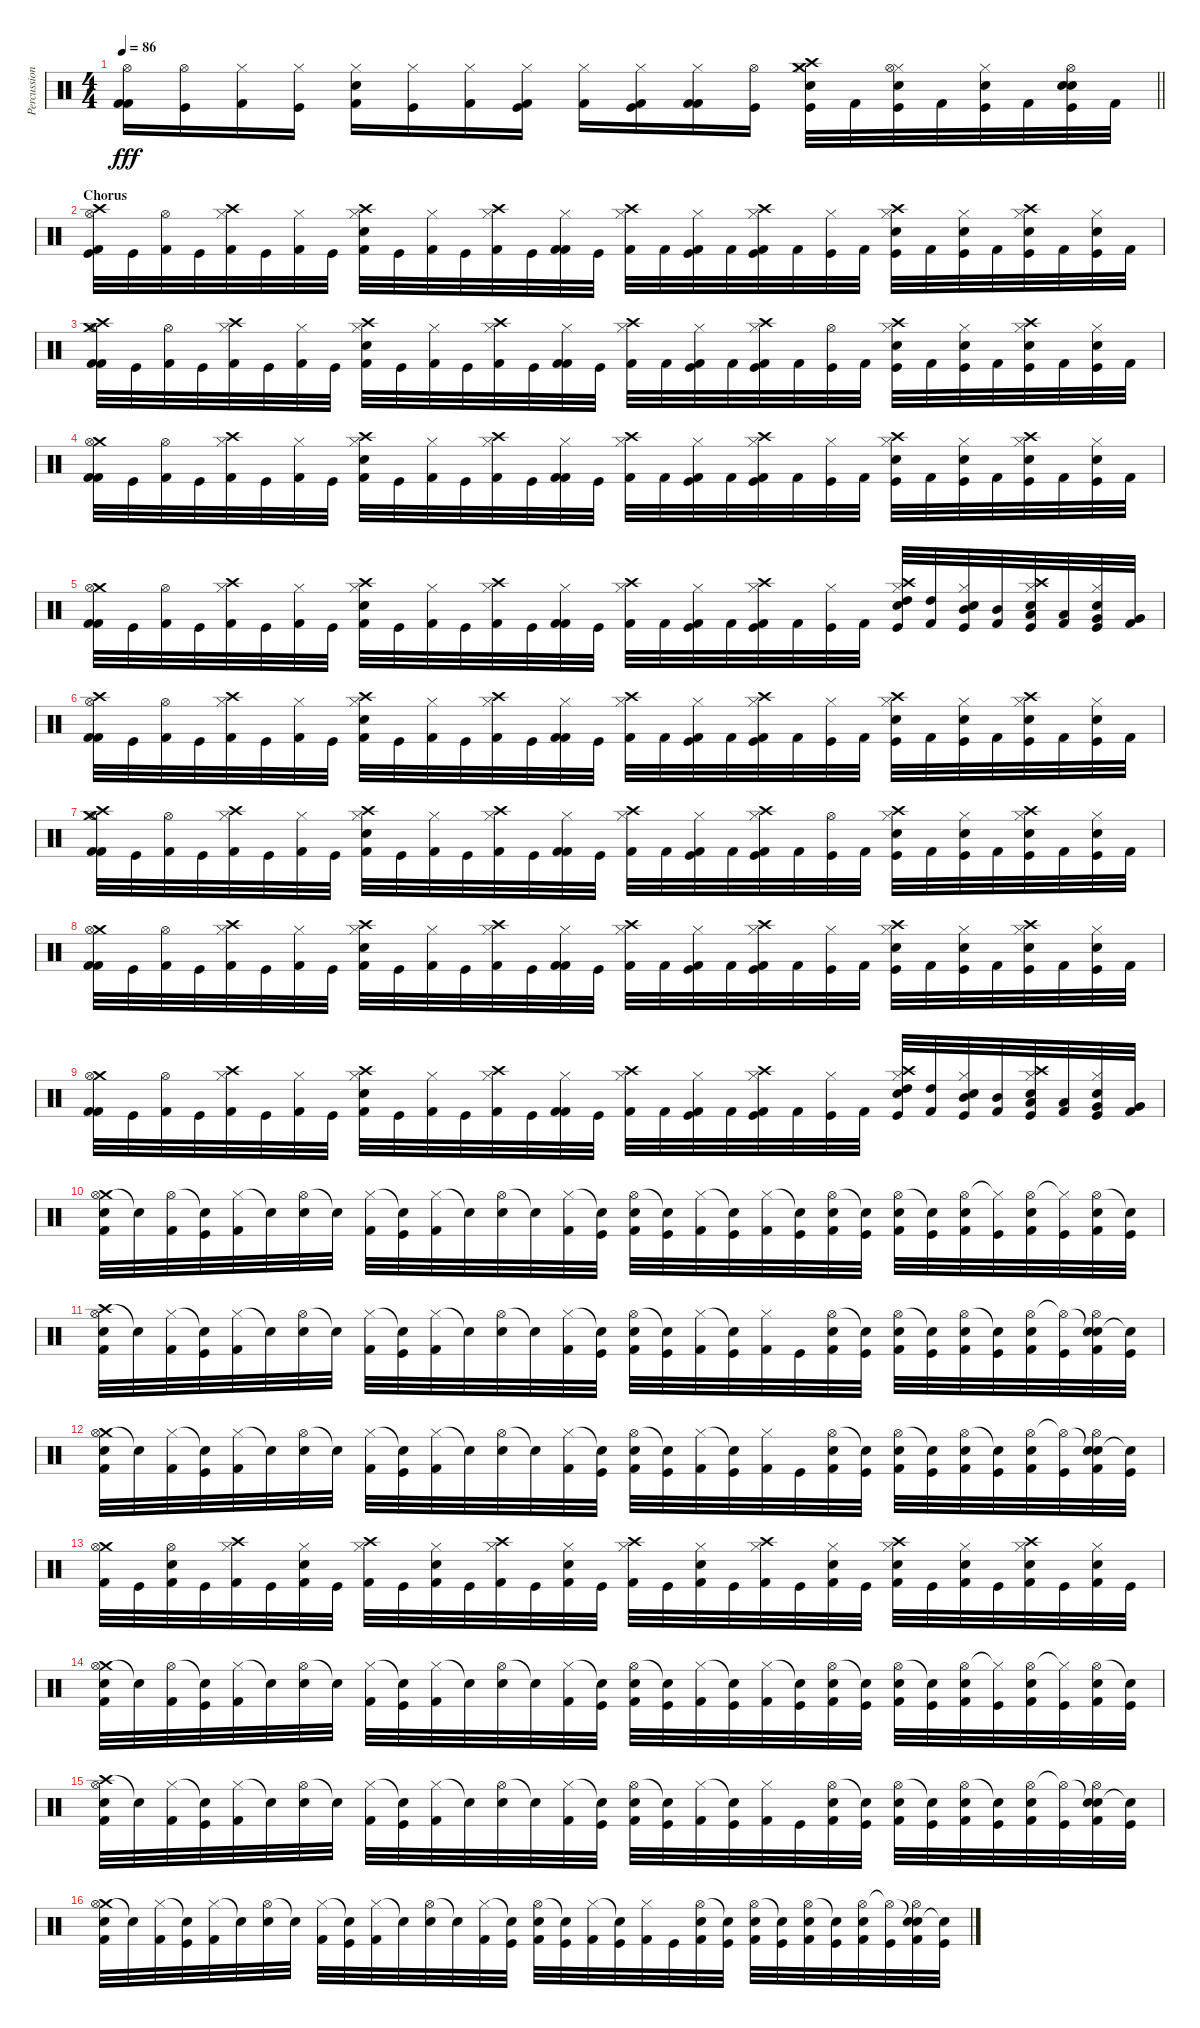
\track ("Percussion" "Percussion") {instrument percussion}
\staff {score}
\articulation defaults
\ts (4 4)
\tempo 86
\clef neutral
\barLineRight lightlight
\ks c
("Hi-Hat (open)" "Kick (hit) 2" "Kick (hit) 2").16{dy fff} ("Hi-Hat (open)" "Kick (hit)").16 ("Hi-Hat (closed)" "Kick (hit) 2").16 ("Hi-Hat (closed)" "Kick (hit)").16 ("Hi-Hat (closed)" "Electric Snare (hit)" "Kick (hit) 2").16 ("Hi-Hat (closed)" "Kick (hit)").16 ("Hi-Hat (closed)" "Kick (hit) 2").16 ("Hi-Hat (closed)" "Kick (hit) 2" "Kick (hit)").16 ("Hi-Hat (closed)" "Kick (hit) 2").16 ("Hi-Hat (closed)" "Kick (hit) 2" "Kick (hit)").16 ("Hi-Hat (closed)" "Kick (hit) 2" "Kick (hit) 2").16 ("Hi-Hat (open)" "Kick (hit)").16 ("Hi-Hat (closed)" "Crash high (hit)" "Crash medium (hit)" "Electric Snare (hit)" "Kick (hit)").32 "Kick (hit) 2".32 ("Hi-Hat (closed)" "Hi-Hat (open)" "Electric Snare (hit)" "Kick (hit)").32 "Kick (hit) 2".32 ("Hi-Hat (closed)" "Electric Snare (hit)" "Kick (hit)").32 "Kick (hit) 2".32 ("Snare (hit)" "Hi-Hat (open)" "Electric Snare (hit)" "Kick (hit)").32 "Kick (hit) 2".32 |
\section ("" "Chorus")
("Crash high (hit)" "Hi-Hat (open)" "Kick (hit) 2" "Kick (hit)").32 "Kick (hit)".32 ("Hi-Hat (open)" "Kick (hit) 2").32 "Kick (hit)".32 ("Crash high (hit)" "Hi-Hat (closed)" "Kick (hit) 2").32 "Kick (hit)".32 ("Hi-Hat (closed)" "Kick (hit) 2").32 "Kick (hit)".32 ("Crash high (hit)" "Hi-Hat (closed)" "Electric Snare (hit)" "Kick (hit) 2").32 "Kick (hit)".32 ("Hi-Hat (closed)" "Kick (hit) 2").32 "Kick (hit)".32 ("Crash high (hit)" "Hi-Hat (closed)" "Kick (hit) 2").32 "Kick (hit)".32 ("Hi-Hat (closed)" "Kick (hit) 2" "Kick (hit) 2").32 "Kick (hit)".32 ("Crash high (hit)" "Hi-Hat (closed)" "Kick (hit) 2").32 "Kick (hit) 2".32 ("Hi-Hat (closed)" "Kick (hit) 2" "Kick (hit)").32 "Kick (hit) 2".32 ("Crash high (hit)" "Hi-Hat (closed)" "Kick (hit) 2" "Kick (hit)").32 "Kick (hit) 2".32 ("Hi-Hat (closed)" "Kick (hit)").32 "Kick (hit) 2".32 ("Crash high (hit)" "Hi-Hat (closed)" "Electric Snare (hit)" "Kick (hit)").32 "Kick (hit) 2".32 ("Hi-Hat (closed)" "Electric Snare (hit)" "Kick (hit)").32 "Kick (hit) 2".32 ("Crash high (hit)" "Hi-Hat (closed)" "Electric Snare (hit)" "Kick (hit)").32 "Kick (hit) 2".32 ("Hi-Hat (closed)" "Electric Snare (hit)" "Kick (hit)").32 "Kick (hit) 2".32 |
("Crash medium (hit)" "Hi-Hat (open)" "Crash high (hit)" "Kick (hit) 2" "Kick (hit) 2").32 "Kick (hit)".32 ("Hi-Hat (open)" "Kick (hit) 2").32 "Kick (hit)".32 ("Crash high (hit)" "Hi-Hat (closed)" "Kick (hit) 2").32 "Kick (hit)".32 ("Hi-Hat (closed)" "Kick (hit) 2").32 "Kick (hit)".32 ("Crash high (hit)" "Hi-Hat (closed)" "Electric Snare (hit)" "Kick (hit) 2").32 "Kick (hit)".32 ("Hi-Hat (closed)" "Kick (hit) 2").32 "Kick (hit)".32 ("Crash high (hit)" "Hi-Hat (closed)" "Kick (hit) 2").32 "Kick (hit)".32 ("Hi-Hat (closed)" "Kick (hit) 2" "Kick (hit) 2").32 "Kick (hit)".32 ("Crash high (hit)" "Hi-Hat (closed)" "Kick (hit) 2").32 "Kick (hit) 2".32 ("Hi-Hat (closed)" "Kick (hit) 2" "Kick (hit)").32 "Kick (hit) 2".32 ("Crash high (hit)" "Hi-Hat (closed)" "Kick (hit) 2" "Kick (hit)").32 "Kick (hit) 2".32 ("Hi-Hat (open)" "Kick (hit)").32 "Kick (hit) 2".32 ("Crash high (hit)" "Hi-Hat (closed)" "Electric Snare (hit)" "Kick (hit)").32 "Kick (hit) 2".32 ("Hi-Hat (closed)" "Electric Snare (hit)" "Kick (hit)").32 "Kick (hit) 2".32 ("Crash high (hit)" "Hi-Hat (closed)" "Electric Snare (hit)" "Kick (hit)").32 "Kick (hit) 2".32 ("Hi-Hat (closed)" "Electric Snare (hit)" "Kick (hit)").32 "Kick (hit) 2".32 |
("Crash medium (hit)" "Hi-Hat (open)" "Kick (hit) 2" "Kick (hit) 2").32 "Kick (hit)".32 ("Hi-Hat (open)" "Kick (hit) 2").32 "Kick (hit)".32 ("Crash high (hit)" "Hi-Hat (closed)" "Kick (hit) 2").32 "Kick (hit)".32 ("Hi-Hat (closed)" "Kick (hit) 2").32 "Kick (hit)".32 ("Crash high (hit)" "Hi-Hat (closed)" "Electric Snare (hit)" "Kick (hit) 2").32 "Kick (hit)".32 ("Hi-Hat (closed)" "Kick (hit) 2").32 "Kick (hit)".32 ("Crash high (hit)" "Hi-Hat (closed)" "Kick (hit) 2").32 "Kick (hit)".32 ("Hi-Hat (closed)" "Kick (hit) 2" "Kick (hit) 2").32 "Kick (hit)".32 ("Crash high (hit)" "Hi-Hat (closed)" "Kick (hit) 2").32 "Kick (hit) 2".32 ("Hi-Hat (closed)" "Kick (hit) 2" "Kick (hit)").32 "Kick (hit) 2".32 ("Crash high (hit)" "Hi-Hat (closed)" "Kick (hit) 2" "Kick (hit)").32 "Kick (hit) 2".32 ("Hi-Hat (closed)" "Kick (hit)").32 "Kick (hit) 2".32 ("Crash high (hit)" "Hi-Hat (closed)" "Electric Snare (hit)" "Kick (hit)").32 "Kick (hit) 2".32 ("Hi-Hat (closed)" "Electric Snare (hit)" "Kick (hit)").32 "Kick (hit) 2".32 ("Crash high (hit)" "Hi-Hat (closed)" "Electric Snare (hit)" "Kick (hit)").32 "Kick (hit) 2".32 ("Hi-Hat (closed)" "Electric Snare (hit)" "Kick (hit)").32 "Kick (hit) 2".32 |
("Crash medium (hit)" "Hi-Hat (open)" "Kick (hit) 2" "Kick (hit) 2").32 "Kick (hit)".32 ("Hi-Hat (open)" "Kick (hit) 2").32 "Kick (hit)".32 ("Crash high (hit)" "Hi-Hat (closed)" "Kick (hit) 2").32 "Kick (hit)".32 ("Hi-Hat (closed)" "Kick (hit) 2").32 "Kick (hit)".32 ("Crash high (hit)" "Hi-Hat (closed)" "Electric Snare (hit)" "Kick (hit) 2").32 "Kick (hit)".32 ("Hi-Hat (closed)" "Kick (hit) 2").32 "Kick (hit)".32 ("Crash high (hit)" "Hi-Hat (closed)" "Kick (hit) 2").32 "Kick (hit)".32 ("Hi-Hat (closed)" "Kick (hit) 2" "Kick (hit) 2").32 "Kick (hit)".32 ("Crash high (hit)" "Hi-Hat (closed)" "Kick (hit) 2").32 "Kick (hit) 2".32 ("Hi-Hat (closed)" "Kick (hit) 2" "Kick (hit)").32 "Kick (hit) 2".32 ("Crash high (hit)" "Hi-Hat (closed)" "Kick (hit) 2" "Kick (hit)").32 "Kick (hit) 2".32 ("Hi-Hat (closed)" "Kick (hit)").32 "Kick (hit) 2".32 ("Crash high (hit)" "Hi-Hat (closed)" "High Tom (hit)" "Electric Snare (hit)" "Kick (hit)").32 ("High Tom (hit)" "Kick (hit) 2").32 ("Hi-Hat (closed)" "Mid Tom (hit)" "Electric Snare (hit)" "Kick (hit)").32 ("Mid Tom (hit)" "Kick (hit) 2").32 ("Crash high (hit)" "Hi-Hat (closed)" "Low Tom (hit)" "Electric Snare (hit)" "Kick (hit)").32 ("Low Tom (hit)" "Kick (hit) 2").32 ("Hi-Hat (closed)" "Very Low Tom (hit)" "Electric Snare (hit)" "Kick (hit)").32 ("Very Low Tom (hit)" "Kick (hit) 2").32 |
("Crash high (hit)" "Hi-Hat (open)" "Kick (hit) 2" "Kick (hit) 2").32 "Kick (hit)".32 ("Hi-Hat (open)" "Kick (hit) 2").32 "Kick (hit)".32 ("Crash high (hit)" "Hi-Hat (closed)" "Kick (hit) 2").32 "Kick (hit)".32 ("Hi-Hat (closed)" "Kick (hit) 2").32 "Kick (hit)".32 ("Crash high (hit)" "Hi-Hat (closed)" "Electric Snare (hit)" "Kick (hit) 2").32 "Kick (hit)".32 ("Hi-Hat (closed)" "Kick (hit) 2").32 "Kick (hit)".32 ("Crash high (hit)" "Hi-Hat (closed)" "Kick (hit) 2").32 "Kick (hit)".32 ("Hi-Hat (closed)" "Kick (hit) 2" "Kick (hit) 2").32 "Kick (hit)".32 ("Crash high (hit)" "Hi-Hat (closed)" "Kick (hit) 2").32 "Kick (hit) 2".32 ("Hi-Hat (closed)" "Kick (hit) 2" "Kick (hit)").32 "Kick (hit) 2".32 ("Crash high (hit)" "Hi-Hat (closed)" "Kick (hit) 2" "Kick (hit)").32 "Kick (hit) 2".32 ("Hi-Hat (closed)" "Kick (hit)").32 "Kick (hit) 2".32 ("Crash high (hit)" "Hi-Hat (closed)" "Electric Snare (hit)" "Kick (hit)").32 "Kick (hit) 2".32 ("Hi-Hat (closed)" "Electric Snare (hit)" "Kick (hit)").32 "Kick (hit) 2".32 ("Crash high (hit)" "Hi-Hat (closed)" "Electric Snare (hit)" "Kick (hit)").32 "Kick (hit) 2".32 ("Hi-Hat (closed)" "Electric Snare (hit)" "Kick (hit)").32 "Kick (hit) 2".32 |
("Crash medium (hit)" "Hi-Hat (open)" "Crash high (hit)" "Kick (hit) 2" "Kick (hit) 2").32 "Kick (hit)".32 ("Hi-Hat (open)" "Kick (hit) 2").32 "Kick (hit)".32 ("Crash high (hit)" "Hi-Hat (closed)" "Kick (hit) 2").32 "Kick (hit)".32 ("Hi-Hat (closed)" "Kick (hit) 2").32 "Kick (hit)".32 ("Crash high (hit)" "Hi-Hat (closed)" "Electric Snare (hit)" "Kick (hit) 2").32 "Kick (hit)".32 ("Hi-Hat (closed)" "Kick (hit) 2").32 "Kick (hit)".32 ("Crash high (hit)" "Hi-Hat (closed)" "Kick (hit) 2").32 "Kick (hit)".32 ("Hi-Hat (closed)" "Kick (hit) 2" "Kick (hit) 2").32 "Kick (hit)".32 ("Crash high (hit)" "Hi-Hat (closed)" "Kick (hit) 2").32 "Kick (hit) 2".32 ("Hi-Hat (closed)" "Kick (hit) 2" "Kick (hit)").32 "Kick (hit) 2".32 ("Crash high (hit)" "Hi-Hat (closed)" "Kick (hit) 2" "Kick (hit)").32 "Kick (hit) 2".32 ("Hi-Hat (open)" "Kick (hit)").32 "Kick (hit) 2".32 ("Crash high (hit)" "Hi-Hat (closed)" "Electric Snare (hit)" "Kick (hit)").32 "Kick (hit) 2".32 ("Hi-Hat (closed)" "Electric Snare (hit)" "Kick (hit)").32 "Kick (hit) 2".32 ("Crash high (hit)" "Hi-Hat (closed)" "Electric Snare (hit)" "Kick (hit)").32 "Kick (hit) 2".32 ("Hi-Hat (closed)" "Electric Snare (hit)" "Kick (hit)").32 "Kick (hit) 2".32 |
("Crash medium (hit)" "Hi-Hat (open)" "Kick (hit) 2" "Kick (hit) 2").32 "Kick (hit)".32 ("Hi-Hat (open)" "Kick (hit) 2").32 "Kick (hit)".32 ("Crash high (hit)" "Hi-Hat (closed)" "Kick (hit) 2").32 "Kick (hit)".32 ("Hi-Hat (closed)" "Kick (hit) 2").32 "Kick (hit)".32 ("Crash high (hit)" "Hi-Hat (closed)" "Electric Snare (hit)" "Kick (hit) 2").32 "Kick (hit)".32 ("Hi-Hat (closed)" "Kick (hit) 2").32 "Kick (hit)".32 ("Crash high (hit)" "Hi-Hat (closed)" "Kick (hit) 2").32 "Kick (hit)".32 ("Hi-Hat (closed)" "Kick (hit) 2" "Kick (hit) 2").32 "Kick (hit)".32 ("Crash high (hit)" "Hi-Hat (closed)" "Kick (hit) 2").32 "Kick (hit) 2".32 ("Hi-Hat (closed)" "Kick (hit) 2" "Kick (hit)").32 "Kick (hit) 2".32 ("Crash high (hit)" "Hi-Hat (closed)" "Kick (hit) 2" "Kick (hit)").32 "Kick (hit) 2".32 ("Hi-Hat (closed)" "Kick (hit)").32 "Kick (hit) 2".32 ("Crash high (hit)" "Hi-Hat (closed)" "Electric Snare (hit)" "Kick (hit)").32 "Kick (hit) 2".32 ("Hi-Hat (closed)" "Electric Snare (hit)" "Kick (hit)").32 "Kick (hit) 2".32 ("Crash high (hit)" "Hi-Hat (closed)" "Electric Snare (hit)" "Kick (hit)").32 "Kick (hit) 2".32 ("Hi-Hat (closed)" "Electric Snare (hit)" "Kick (hit)").32 "Kick (hit) 2".32 |
("Crash medium (hit)" "Hi-Hat (open)" "Kick (hit) 2" "Kick (hit) 2").32 "Kick (hit)".32 ("Hi-Hat (open)" "Kick (hit) 2").32 "Kick (hit)".32 ("Crash high (hit)" "Hi-Hat (closed)" "Kick (hit) 2").32 "Kick (hit)".32 ("Hi-Hat (closed)" "Kick (hit) 2").32 "Kick (hit)".32 ("Crash high (hit)" "Hi-Hat (closed)" "Electric Snare (hit)" "Kick (hit) 2").32 "Kick (hit)".32 ("Hi-Hat (closed)" "Kick (hit) 2").32 "Kick (hit)".32 ("Crash high (hit)" "Hi-Hat (closed)" "Kick (hit) 2").32 "Kick (hit)".32 ("Hi-Hat (closed)" "Kick (hit) 2" "Kick (hit) 2").32 "Kick (hit)".32 ("Crash high (hit)" "Hi-Hat (closed)" "Kick (hit) 2").32 "Kick (hit) 2".32 ("Hi-Hat (closed)" "Kick (hit) 2" "Kick (hit)").32 "Kick (hit) 2".32 ("Crash high (hit)" "Hi-Hat (closed)" "Kick (hit) 2" "Kick (hit)").32 "Kick (hit) 2".32 ("Hi-Hat (closed)" "Kick (hit)").32 "Kick (hit) 2".32 ("Crash high (hit)" "Hi-Hat (closed)" "High Tom (hit)" "Electric Snare (hit)" "Kick (hit)").32 ("High Tom (hit)" "Kick (hit) 2").32 ("Hi-Hat (closed)" "Mid Tom (hit)" "Electric Snare (hit)" "Kick (hit)").32 ("Mid Tom (hit)" "Kick (hit) 2").32 ("Crash high (hit)" "Hi-Hat (closed)" "Low Tom (hit)" "Electric Snare (hit)" "Kick (hit)").32 ("Low Tom (hit)" "Kick (hit) 2").32 ("Hi-Hat (closed)" "Very Low Tom (hit)" "Electric Snare (hit)" "Kick (hit)").32 ("Very Low Tom (hit)" "Kick (hit) 2").32 |
("Crash medium (hit)" "Hi-Hat (open)" "Electric Snare (hit)" "Kick (hit) 2").32 "Snare (hit)"{t}.32 ("Hi-Hat (open)" "Kick (hit) 2").32 ("Snare (hit)"{t} "Kick (hit)").32 ("Hi-Hat (closed)" "Kick (hit) 2").32 "Snare (hit)"{t}.32 ("Hi-Hat (open)" "Electric Snare (hit)").32 "Snare (hit)"{t}.32 ("Hi-Hat (closed)" "Kick (hit) 2").32 ("Snare (hit)"{t} "Kick (hit)").32 ("Hi-Hat (closed)" "Kick (hit) 2").32 "Snare (hit)"{t}.32 ("Hi-Hat (open)" "Electric Snare (hit)").32 "Snare (hit)"{t}.32 ("Hi-Hat (closed)" "Kick (hit) 2").32 ("Snare (hit)"{t} "Kick (hit)").32 ("Hi-Hat (open)" "Electric Snare (hit)" "Kick (hit) 2").32 ("Snare (hit)"{t} "Kick (hit)").32 ("Hi-Hat (closed)" "Kick (hit) 2").32 ("Snare (hit)"{t} "Kick (hit)").32 ("Hi-Hat (closed)" "Kick (hit) 2").32 ("Snare (hit)"{t} "Kick (hit)").32 ("Hi-Hat (open)" "Electric Snare (hit)" "Kick (hit) 2").32 ("Snare (hit)"{t} "Kick (hit)").32 ("Hi-Hat (open)" "Electric Snare (hit)" "Kick (hit) 2").32 ("Snare (hit)"{t} "Kick (hit)").32 ("Hi-Hat (open)" "Electric Snare (hit)" "Kick (hit) 2").32 ("Hi-Hat (closed)"{t} "Kick (hit)").32 ("Hi-Hat (open)" "Electric Snare (hit)" "Kick (hit) 2").32 ("Hi-Hat (closed)"{t} "Kick (hit)").32 ("Hi-Hat (open)" "Electric Snare (hit)" "Kick (hit) 2").32 ("Snare (hit)"{t} "Kick (hit)").32 |
("Crash high (hit)" "Hi-Hat (open)" "Electric Snare (hit)" "Kick (hit) 2").32 "Snare (hit)"{t}.32 ("Hi-Hat (closed)" "Kick (hit) 2").32 ("Snare (hit)"{t} "Kick (hit)").32 ("Hi-Hat (closed)" "Kick (hit) 2").32 "Snare (hit)"{t}.32 ("Hi-Hat (open)" "Electric Snare (hit)").32 "Snare (hit)"{t}.32 ("Hi-Hat (closed)" "Kick (hit) 2").32 ("Snare (hit)"{t} "Kick (hit)").32 ("Hi-Hat (closed)" "Kick (hit) 2").32 "Snare (hit)"{t}.32 ("Hi-Hat (open)" "Electric Snare (hit)").32 "Snare (hit)"{t}.32 ("Hi-Hat (closed)" "Kick (hit) 2").32 ("Snare (hit)"{t} "Kick (hit)").32 ("Hi-Hat (open)" "Electric Snare (hit)" "Kick (hit) 2").32 ("Snare (hit)"{t} "Kick (hit)").32 ("Hi-Hat (closed)" "Kick (hit) 2").32 ("Snare (hit)"{t} "Kick (hit)").32 ("Hi-Hat (closed)" "Kick (hit) 2").32 "Kick (hit)".32 ("Hi-Hat (open)" "Electric Snare (hit)" "Kick (hit) 2").32 ("Snare (hit)"{t} "Kick (hit)").32 ("Hi-Hat (open)" "Electric Snare (hit)" "Kick (hit) 2").32 ("Snare (hit)"{t} "Kick (hit)").32 ("Hi-Hat (open)" "Electric Snare (hit)" "Kick (hit) 2").32 ("Snare (hit)"{t} "Kick (hit)").32 ("Hi-Hat (open)" "Electric Snare (hit)" "Kick (hit) 2").32 ("Hi-Hat (open)"{t} "Kick (hit)").32 ("Snare (hit)"{t} "Hi-Hat (open)" "Electric Snare (hit)" "Kick (hit) 2").32 ("Snare (hit)"{t} "Kick (hit)").32 |
("Crash medium (hit)" "Hi-Hat (open)" "Electric Snare (hit)" "Kick (hit) 2").32 "Snare (hit)"{t}.32 ("Hi-Hat (closed)" "Kick (hit) 2").32 ("Snare (hit)"{t} "Kick (hit)").32 ("Hi-Hat (closed)" "Kick (hit) 2").32 "Snare (hit)"{t}.32 ("Hi-Hat (open)" "Electric Snare (hit)").32 "Snare (hit)"{t}.32 ("Hi-Hat (closed)" "Kick (hit) 2").32 ("Snare (hit)"{t} "Kick (hit)").32 ("Hi-Hat (closed)" "Kick (hit) 2").32 "Snare (hit)"{t}.32 ("Hi-Hat (open)" "Electric Snare (hit)").32 "Snare (hit)"{t}.32 ("Hi-Hat (closed)" "Kick (hit) 2").32 ("Snare (hit)"{t} "Kick (hit)").32 ("Hi-Hat (open)" "Electric Snare (hit)" "Kick (hit) 2").32 ("Snare (hit)"{t} "Kick (hit)").32 ("Hi-Hat (closed)" "Kick (hit) 2").32 ("Snare (hit)"{t} "Kick (hit)").32 ("Hi-Hat (closed)" "Kick (hit) 2").32 "Kick (hit)".32 ("Hi-Hat (open)" "Electric Snare (hit)" "Kick (hit) 2").32 ("Snare (hit)"{t} "Kick (hit)").32 ("Hi-Hat (open)" "Electric Snare (hit)" "Kick (hit) 2").32 ("Snare (hit)"{t} "Kick (hit)").32 ("Hi-Hat (open)" "Electric Snare (hit)" "Kick (hit) 2").32 ("Snare (hit)"{t} "Kick (hit)").32 ("Hi-Hat (open)" "Electric Snare (hit)" "Kick (hit) 2").32 ("Hi-Hat (open)"{t} "Kick (hit)").32 ("Snare (hit)"{t} "Hi-Hat (open)" "Electric Snare (hit)" "Kick (hit) 2").32 ("Snare (hit)"{t} "Kick (hit)").32 |
("Crash medium (hit)" "Hi-Hat (open)" "Kick (hit) 2").32 "Kick (hit)".32 ("Hi-Hat (open)" "Electric Snare (hit)" "Kick (hit) 2").32 "Kick (hit)".32 ("Crash high (hit)" "Hi-Hat (closed)" "Kick (hit) 2").32 "Kick (hit)".32 ("Hi-Hat (closed)" "Electric Snare (hit)" "Kick (hit) 2").32 "Kick (hit)".32 ("Crash high (hit)" "Hi-Hat (closed)" "Kick (hit) 2").32 "Kick (hit)".32 ("Hi-Hat (closed)" "Electric Snare (hit)" "Kick (hit) 2").32 "Kick (hit)".32 ("Crash high (hit)" "Hi-Hat (closed)" "Kick (hit) 2").32 "Kick (hit)".32 ("Hi-Hat (closed)" "Electric Snare (hit)" "Kick (hit) 2").32 "Kick (hit)".32 ("Crash high (hit)" "Hi-Hat (closed)" "Kick (hit) 2").32 "Kick (hit)".32 ("Hi-Hat (closed)" "Electric Snare (hit)" "Kick (hit) 2").32 "Kick (hit)".32 ("Crash high (hit)" "Hi-Hat (closed)" "Kick (hit) 2").32 "Kick (hit)".32 ("Hi-Hat (closed)" "Electric Snare (hit)" "Kick (hit) 2").32 "Kick (hit)".32 ("Crash high (hit)" "Hi-Hat (closed)" "Electric Snare (hit)" "Kick (hit) 2").32 "Kick (hit)".32 ("Hi-Hat (closed)" "Electric Snare (hit)" "Kick (hit) 2").32 "Kick (hit)".32 ("Crash high (hit)" "Hi-Hat (closed)" "Electric Snare (hit)" "Kick (hit) 2").32 "Kick (hit)".32 ("Hi-Hat (closed)" "Electric Snare (hit)" "Kick (hit) 2").32 "Kick (hit)".32 |
("Crash medium (hit)" "Hi-Hat (open)" "Electric Snare (hit)" "Kick (hit) 2").32 "Snare (hit)"{t}.32 ("Hi-Hat (open)" "Kick (hit) 2").32 ("Snare (hit)"{t} "Kick (hit)").32 ("Hi-Hat (closed)" "Kick (hit) 2").32 "Snare (hit)"{t}.32 ("Hi-Hat (open)" "Electric Snare (hit)").32 "Snare (hit)"{t}.32 ("Hi-Hat (closed)" "Kick (hit) 2").32 ("Snare (hit)"{t} "Kick (hit)").32 ("Hi-Hat (closed)" "Kick (hit) 2").32 "Snare (hit)"{t}.32 ("Hi-Hat (open)" "Electric Snare (hit)").32 "Snare (hit)"{t}.32 ("Hi-Hat (closed)" "Kick (hit) 2").32 ("Snare (hit)"{t} "Kick (hit)").32 ("Hi-Hat (open)" "Electric Snare (hit)" "Kick (hit) 2").32 ("Snare (hit)"{t} "Kick (hit)").32 ("Hi-Hat (closed)" "Kick (hit) 2").32 ("Snare (hit)"{t} "Kick (hit)").32 ("Hi-Hat (closed)" "Kick (hit) 2").32 ("Snare (hit)"{t} "Kick (hit)").32 ("Hi-Hat (open)" "Electric Snare (hit)" "Kick (hit) 2").32 ("Snare (hit)"{t} "Kick (hit)").32 ("Hi-Hat (open)" "Electric Snare (hit)" "Kick (hit) 2").32 ("Snare (hit)"{t} "Kick (hit)").32 ("Hi-Hat (open)" "Electric Snare (hit)" "Kick (hit) 2").32 ("Hi-Hat (closed)"{t} "Kick (hit)").32 ("Hi-Hat (open)" "Electric Snare (hit)" "Kick (hit) 2").32 ("Hi-Hat (closed)"{t} "Kick (hit)").32 ("Hi-Hat (open)" "Electric Snare (hit)" "Kick (hit) 2").32 ("Snare (hit)"{t} "Kick (hit)").32 |
("Crash high (hit)" "Hi-Hat (open)" "Electric Snare (hit)" "Kick (hit) 2").32 "Snare (hit)"{t}.32 ("Hi-Hat (closed)" "Kick (hit) 2").32 ("Snare (hit)"{t} "Kick (hit)").32 ("Hi-Hat (closed)" "Kick (hit) 2").32 "Snare (hit)"{t}.32 ("Hi-Hat (open)" "Electric Snare (hit)").32 "Snare (hit)"{t}.32 ("Hi-Hat (closed)" "Kick (hit) 2").32 ("Snare (hit)"{t} "Kick (hit)").32 ("Hi-Hat (closed)" "Kick (hit) 2").32 "Snare (hit)"{t}.32 ("Hi-Hat (open)" "Electric Snare (hit)").32 "Snare (hit)"{t}.32 ("Hi-Hat (closed)" "Kick (hit) 2").32 ("Snare (hit)"{t} "Kick (hit)").32 ("Hi-Hat (open)" "Electric Snare (hit)" "Kick (hit) 2").32 ("Snare (hit)"{t} "Kick (hit)").32 ("Hi-Hat (closed)" "Kick (hit) 2").32 ("Snare (hit)"{t} "Kick (hit)").32 ("Hi-Hat (closed)" "Kick (hit) 2").32 "Kick (hit)".32 ("Hi-Hat (open)" "Electric Snare (hit)" "Kick (hit) 2").32 ("Snare (hit)"{t} "Kick (hit)").32 ("Hi-Hat (open)" "Electric Snare (hit)" "Kick (hit) 2").32 ("Snare (hit)"{t} "Kick (hit)").32 ("Hi-Hat (open)" "Electric Snare (hit)" "Kick (hit) 2").32 ("Snare (hit)"{t} "Kick (hit)").32 ("Hi-Hat (open)" "Electric Snare (hit)" "Kick (hit) 2").32 ("Hi-Hat (open)"{t} "Kick (hit)").32 ("Snare (hit)"{t} "Hi-Hat (open)" "Electric Snare (hit)" "Kick (hit) 2").32 ("Snare (hit)"{t} "Kick (hit)").32 |
("Crash medium (hit)" "Hi-Hat (open)" "Electric Snare (hit)" "Kick (hit) 2").32 "Snare (hit)"{t}.32 ("Hi-Hat (closed)" "Kick (hit) 2").32 ("Snare (hit)"{t} "Kick (hit)").32 ("Hi-Hat (closed)" "Kick (hit) 2").32 "Snare (hit)"{t}.32 ("Hi-Hat (open)" "Electric Snare (hit)").32 "Snare (hit)"{t}.32 ("Hi-Hat (closed)" "Kick (hit) 2").32 ("Snare (hit)"{t} "Kick (hit)").32 ("Hi-Hat (closed)" "Kick (hit) 2").32 "Snare (hit)"{t}.32 ("Hi-Hat (open)" "Electric Snare (hit)").32 "Snare (hit)"{t}.32 ("Hi-Hat (closed)" "Kick (hit) 2").32 ("Snare (hit)"{t} "Kick (hit)").32 ("Hi-Hat (open)" "Electric Snare (hit)" "Kick (hit) 2").32 ("Snare (hit)"{t} "Kick (hit)").32 ("Hi-Hat (closed)" "Kick (hit) 2").32 ("Snare (hit)"{t} "Kick (hit)").32 ("Hi-Hat (closed)" "Kick (hit) 2").32 "Kick (hit)".32 ("Hi-Hat (open)" "Electric Snare (hit)" "Kick (hit) 2").32 ("Snare (hit)"{t} "Kick (hit)").32 ("Hi-Hat (open)" "Electric Snare (hit)" "Kick (hit) 2").32 ("Snare (hit)"{t} "Kick (hit)").32 ("Hi-Hat (open)" "Electric Snare (hit)" "Kick (hit) 2").32 ("Snare (hit)"{t} "Kick (hit)").32 ("Hi-Hat (open)" "Electric Snare (hit)" "Kick (hit) 2").32 ("Hi-Hat (open)"{t} "Kick (hit)").32 ("Snare (hit)"{t} "Hi-Hat (open)" "Electric Snare (hit)" "Kick (hit) 2").32 ("Snare (hit)"{t} "Kick (hit)").32
